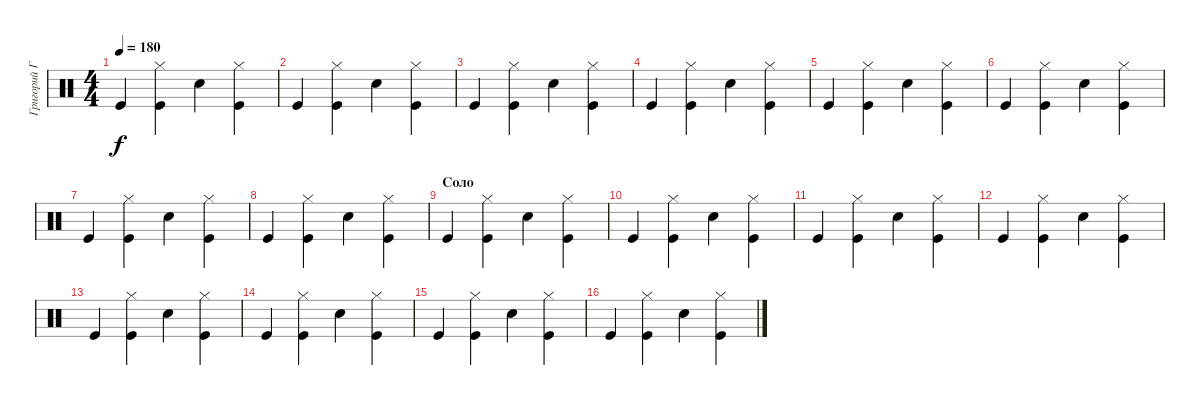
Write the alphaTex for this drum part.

\track ("Григорий Габерман" "Григорий Г") {instrument percussion}
\staff {score}
\articulation defaults
\ts (4 4)
\tempo 180
\clef neutral
\ks c "Kick (hit)".4{dy f}
("Kick (hit)" "Hi-Hat (closed)").4 "Snare (hit) 2".4 ("Kick (hit)" "Hi-Hat (closed)").4 |
"Kick (hit)".4 ("Kick (hit)" "Hi-Hat (closed)").4 "Snare (hit) 2".4 ("Kick (hit)" "Hi-Hat (closed)").4 |
"Kick (hit)".4 ("Kick (hit)" "Hi-Hat (closed)").4 "Snare (hit) 2".4 ("Kick (hit)" "Hi-Hat (closed)").4 |
"Kick (hit)".4 ("Kick (hit)" "Hi-Hat (closed)").4 "Snare (hit) 2".4 ("Kick (hit)" "Hi-Hat (closed)").4 |
"Kick (hit)".4 ("Kick (hit)" "Hi-Hat (closed)").4 "Snare (hit) 2".4 ("Kick (hit)" "Hi-Hat (closed)").4 |
"Kick (hit)".4 ("Kick (hit)" "Hi-Hat (closed)").4 "Snare (hit) 2".4 ("Kick (hit)" "Hi-Hat (closed)").4 |
"Kick (hit)".4 ("Kick (hit)" "Hi-Hat (closed)").4 "Snare (hit) 2".4 ("Kick (hit)" "Hi-Hat (closed)").4 |
"Kick (hit)".4 ("Kick (hit)" "Hi-Hat (closed)").4 "Snare (hit) 2".4 ("Kick (hit)" "Hi-Hat (closed)").4 |
\section ("" "Соло")
"Kick (hit)".4 ("Kick (hit)" "Hi-Hat (closed)").4 "Snare (hit) 2".4 ("Kick (hit)" "Hi-Hat (closed)").4 |
"Kick (hit)".4 ("Kick (hit)" "Hi-Hat (closed)").4 "Snare (hit) 2".4 ("Kick (hit)" "Hi-Hat (closed)").4 |
"Kick (hit)".4 ("Kick (hit)" "Hi-Hat (closed)").4 "Snare (hit) 2".4 ("Kick (hit)" "Hi-Hat (closed)").4 |
"Kick (hit)".4 ("Kick (hit)" "Hi-Hat (closed)").4 "Snare (hit) 2".4 ("Kick (hit)" "Hi-Hat (closed)").4 |
"Kick (hit)".4 ("Kick (hit)" "Hi-Hat (closed)").4 "Snare (hit) 2".4 ("Kick (hit)" "Hi-Hat (closed)").4 |
"Kick (hit)".4 ("Kick (hit)" "Hi-Hat (closed)").4 "Snare (hit) 2".4 ("Kick (hit)" "Hi-Hat (closed)").4 |
"Kick (hit)".4 ("Kick (hit)" "Hi-Hat (closed)").4 "Snare (hit) 2".4 ("Kick (hit)" "Hi-Hat (closed)").4 |
"Kick (hit)".4 ("Kick (hit)" "Hi-Hat (closed)").4 "Snare (hit) 2".4 ("Kick (hit)" "Hi-Hat (closed)").4
